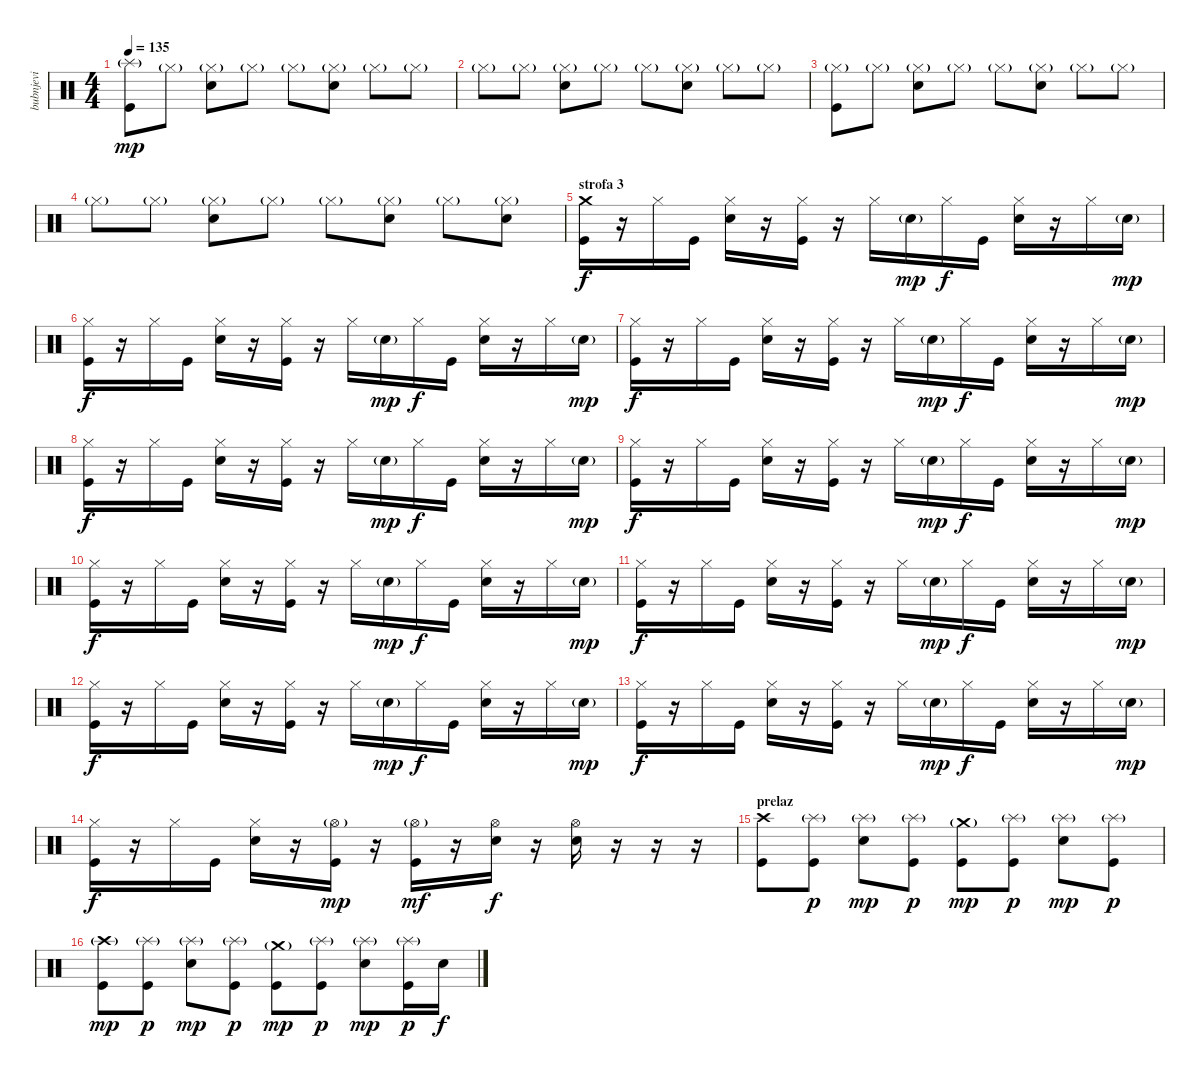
\track ("bubnjevi" "bubnjevi") {instrument percussion}
\staff {score}
\articulation defaults
\ts (4 4)
\tempo 135
\clef neutral
\ks c
("Splash (hit)"{g} "Kick (hit)").8{dy mp} "Hi-Hat (closed)"{g}.8 ("Hi-Hat (closed)"{g} "Electric Snare (hit)").8 "Hi-Hat (closed)"{g}.8 "Hi-Hat (closed)"{g}.8 ("Hi-Hat (closed)"{g} "Electric Snare (hit)").8 "Hi-Hat (closed)"{g}.8 "Hi-Hat (closed)"{g}.8 |
"Hi-Hat (closed)"{g}.8 "Hi-Hat (closed)"{g}.8 ("Hi-Hat (closed)"{g} "Electric Snare (hit)").8 "Hi-Hat (closed)"{g}.8 "Hi-Hat (closed)"{g}.8 ("Hi-Hat (closed)"{g} "Electric Snare (hit)").8 "Hi-Hat (closed)"{g}.8 "Hi-Hat (closed)"{g}.8 |
("Hi-Hat (closed)"{g} "Kick (hit)").8 "Hi-Hat (closed)"{g}.8 ("Hi-Hat (closed)"{g} "Electric Snare (hit)").8 "Hi-Hat (closed)"{g}.8 "Hi-Hat (closed)"{g}.8 ("Hi-Hat (closed)"{g} "Electric Snare (hit)").8 "Hi-Hat (closed)"{g}.8 "Hi-Hat (closed)"{g}.8 |
"Hi-Hat (closed)"{g}.8 "Hi-Hat (closed)"{g}.8 ("Hi-Hat (closed)"{g} "Electric Snare (hit)").8 "Hi-Hat (closed)"{g}.8 "Hi-Hat (closed)"{g}.8 ("Hi-Hat (closed)"{g} "Electric Snare (hit)").8 "Hi-Hat (closed)"{g}.8 ("Hi-Hat (closed)"{g} "Electric Snare (hit)").8 |
\section ("" "strofa 3")
("Crash medium (hit)" "Kick (hit)").16{dy f} r.16 "Hi-Hat (closed)".16 "Kick (hit)".16 ("Hi-Hat (closed)" "Electric Snare (hit)").16 r.16 ("Hi-Hat (closed)" "Kick (hit)").16 r.16 "Hi-Hat (closed)".16 "Electric Snare (hit)"{g}.16{dy mp} "Hi-Hat (closed)".16{dy f} "Kick (hit)".16 ("Hi-Hat (closed)" "Electric Snare (hit)").16 r.16 "Hi-Hat (closed)".16 "Electric Snare (hit)"{g}.16{dy mp} |
("Hi-Hat (closed)" "Kick (hit)").16{dy f} r.16 "Hi-Hat (closed)".16 "Kick (hit)".16 ("Hi-Hat (closed)" "Electric Snare (hit)").16 r.16 ("Hi-Hat (closed)" "Kick (hit)").16 r.16 "Hi-Hat (closed)".16 "Electric Snare (hit)"{g}.16{dy mp} "Hi-Hat (closed)".16{dy f} "Kick (hit)".16 ("Hi-Hat (closed)" "Electric Snare (hit)").16 r.16 "Hi-Hat (closed)".16 "Electric Snare (hit)"{g}.16{dy mp} |
("Hi-Hat (closed)" "Kick (hit)").16{dy f} r.16 "Hi-Hat (closed)".16 "Kick (hit)".16 ("Hi-Hat (closed)" "Electric Snare (hit)").16 r.16 ("Hi-Hat (closed)" "Kick (hit)").16 r.16 "Hi-Hat (closed)".16 "Electric Snare (hit)"{g}.16{dy mp} "Hi-Hat (closed)".16{dy f} "Kick (hit)".16 ("Hi-Hat (closed)" "Electric Snare (hit)").16 r.16 "Hi-Hat (closed)".16 "Electric Snare (hit)"{g}.16{dy mp} |
("Hi-Hat (closed)" "Kick (hit)").16{dy f} r.16 "Hi-Hat (closed)".16 "Kick (hit)".16 ("Hi-Hat (closed)" "Electric Snare (hit)").16 r.16 ("Hi-Hat (closed)" "Kick (hit)").16 r.16 "Hi-Hat (closed)".16 "Electric Snare (hit)"{g}.16{dy mp} "Hi-Hat (closed)".16{dy f} "Kick (hit)".16 ("Hi-Hat (closed)" "Electric Snare (hit)").16 r.16 "Hi-Hat (closed)".16 "Electric Snare (hit)"{g}.16{dy mp} |
("Hi-Hat (closed)" "Kick (hit)").16{dy f} r.16 "Hi-Hat (closed)".16 "Kick (hit)".16 ("Hi-Hat (closed)" "Electric Snare (hit)").16 r.16 ("Hi-Hat (closed)" "Kick (hit)").16 r.16 "Hi-Hat (closed)".16 "Electric Snare (hit)"{g}.16{dy mp} "Hi-Hat (closed)".16{dy f} "Kick (hit)".16 ("Hi-Hat (closed)" "Electric Snare (hit)").16 r.16 "Hi-Hat (closed)".16 "Electric Snare (hit)"{g}.16{dy mp} |
("Hi-Hat (closed)" "Kick (hit)").16{dy f} r.16 "Hi-Hat (closed)".16 "Kick (hit)".16 ("Hi-Hat (closed)" "Electric Snare (hit)").16 r.16 ("Hi-Hat (closed)" "Kick (hit)").16 r.16 "Hi-Hat (closed)".16 "Electric Snare (hit)"{g}.16{dy mp} "Hi-Hat (closed)".16{dy f} "Kick (hit)".16 ("Hi-Hat (closed)" "Electric Snare (hit)").16 r.16 "Hi-Hat (closed)".16 "Electric Snare (hit)"{g}.16{dy mp} |
("Hi-Hat (closed)" "Kick (hit)").16{dy f} r.16 "Hi-Hat (closed)".16 "Kick (hit)".16 ("Hi-Hat (closed)" "Electric Snare (hit)").16 r.16 ("Hi-Hat (closed)" "Kick (hit)").16 r.16 "Hi-Hat (closed)".16 "Electric Snare (hit)"{g}.16{dy mp} "Hi-Hat (closed)".16{dy f} "Kick (hit)".16 ("Hi-Hat (closed)" "Electric Snare (hit)").16 r.16 "Hi-Hat (closed)".16 "Electric Snare (hit)"{g}.16{dy mp} |
("Hi-Hat (closed)" "Kick (hit)").16{dy f} r.16 "Hi-Hat (closed)".16 "Kick (hit)".16 ("Hi-Hat (closed)" "Electric Snare (hit)").16 r.16 ("Hi-Hat (closed)" "Kick (hit)").16 r.16 "Hi-Hat (closed)".16 "Electric Snare (hit)"{g}.16{dy mp} "Hi-Hat (closed)".16{dy f} "Kick (hit)".16 ("Hi-Hat (closed)" "Electric Snare (hit)").16 r.16 "Hi-Hat (closed)".16 "Electric Snare (hit)"{g}.16{dy mp} |
("Hi-Hat (closed)" "Kick (hit)").16{dy f} r.16 "Hi-Hat (closed)".16 "Kick (hit)".16 ("Hi-Hat (closed)" "Electric Snare (hit)").16 r.16 ("Hi-Hat (closed)" "Kick (hit)").16 r.16 "Hi-Hat (closed)".16 "Electric Snare (hit)"{g}.16{dy mp} "Hi-Hat (closed)".16{dy f} "Kick (hit)".16 ("Hi-Hat (closed)" "Electric Snare (hit)").16 r.16 "Hi-Hat (closed)".16 "Electric Snare (hit)"{g}.16{dy mp} |
("Hi-Hat (closed)" "Kick (hit)").16{dy f} r.16 "Hi-Hat (closed)".16 "Kick (hit)".16 ("Hi-Hat (closed)" "Electric Snare (hit)").16 r.16 ("Hi-Hat (open)"{g} "Kick (hit)").16{dy mp} r.16 ("Hi-Hat (open)"{g} "Kick (hit)").16{dy mf} r.16 ("Hi-Hat (open)" "Electric Snare (hit)").16{dy f} r.16 ("Hi-Hat (open)" "Electric Snare (hit)").16 r.16 r.16 r.16 |
\section ("" "prelaz")
("Crash high (hit)" "Kick (hit)").8 ("Splash (hit)"{g} "Kick (hit)").8{dy p} ("Splash (hit)"{g} "Electric Snare (hit)").8{dy mp} ("Splash (hit)"{g} "Kick (hit)").8{dy p} ("Crash medium (hit)"{g} "Kick (hit)").8{dy mp} ("Splash (hit)"{g} "Kick (hit)").8{dy p} ("Splash (hit)"{g} "Electric Snare (hit)").8{dy mp} ("Splash (hit)"{g} "Kick (hit)").8{dy p} |
("Crash high (hit)"{g} "Kick (hit)").8{dy mp} ("Splash (hit)"{g} "Kick (hit)").8{dy p} ("Splash (hit)"{g} "Electric Snare (hit)").8{dy mp} ("Splash (hit)"{g} "Kick (hit)").8{dy p} ("Crash medium (hit)"{g} "Kick (hit)").8{dy mp} ("Splash (hit)"{g} "Kick (hit)").8{dy p} ("Splash (hit)"{g} "Electric Snare (hit)").8{dy mp} ("Splash (hit)"{g} "Kick (hit)").16{dy p} "Electric Snare (hit)".16{dy f}
